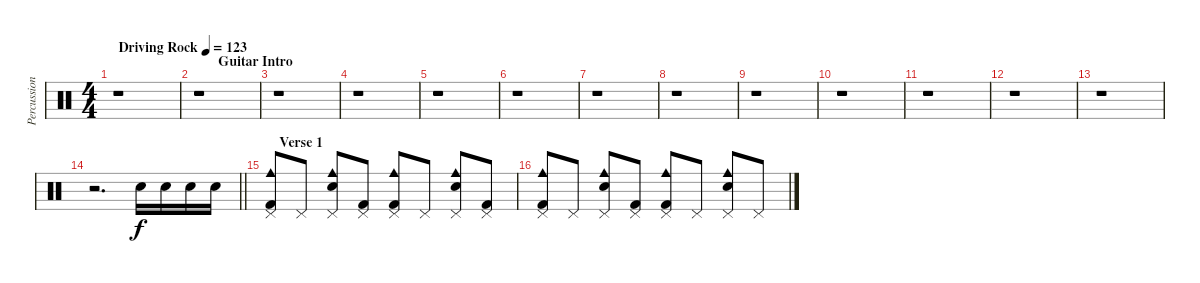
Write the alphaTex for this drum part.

\track ("Percussion" "Percussion") {instrument percussion}
\staff {score}
\articulation defaults
\ts (4 4)
\section ("" "                              Guitar Intro")
\tempo (123 "Driving Rock")
\clef neutral
\ks c
r.1{dy f} |
r.1 |
r.1 |
r.1 |
r.1 |
r.1 |
r.1 |
r.1 |
r.1 |
r.1 |
r.1 |
r.1 |
r.1 |
\barLineRight lightlight
r.2{d} "Electric Snare (hit)".16 "Electric Snare (hit)".16 "Electric Snare (hit)".16 "Electric Snare (hit)".16 |
\section ("" "    Verse 1")
("Pedal Hi-Hat (hit)" "Kick (hit) 2" "Cowbell medium (hit)").8 "Pedal Hi-Hat (hit)".8 ("Pedal Hi-Hat (hit)" "Electric Snare (hit)" "Cowbell medium (hit)").8 ("Pedal Hi-Hat (hit)" "Kick (hit) 2").8 ("Pedal Hi-Hat (hit)" "Kick (hit) 2" "Cowbell medium (hit)").8 "Pedal Hi-Hat (hit)".8 ("Pedal Hi-Hat (hit)" "Electric Snare (hit)" "Cowbell medium (hit)").8 ("Pedal Hi-Hat (hit)" "Kick (hit) 2").8 |
("Pedal Hi-Hat (hit)" "Kick (hit) 2" "Cowbell medium (hit)").8 "Pedal Hi-Hat (hit)".8 ("Pedal Hi-Hat (hit)" "Electric Snare (hit)" "Cowbell medium (hit)").8 ("Pedal Hi-Hat (hit)" "Kick (hit) 2").8 ("Pedal Hi-Hat (hit)" "Kick (hit) 2" "Cowbell medium (hit)").8 "Pedal Hi-Hat (hit)".8 ("Pedal Hi-Hat (hit)" "Electric Snare (hit)" "Cowbell medium (hit)").8 "Pedal Hi-Hat (hit)".8
